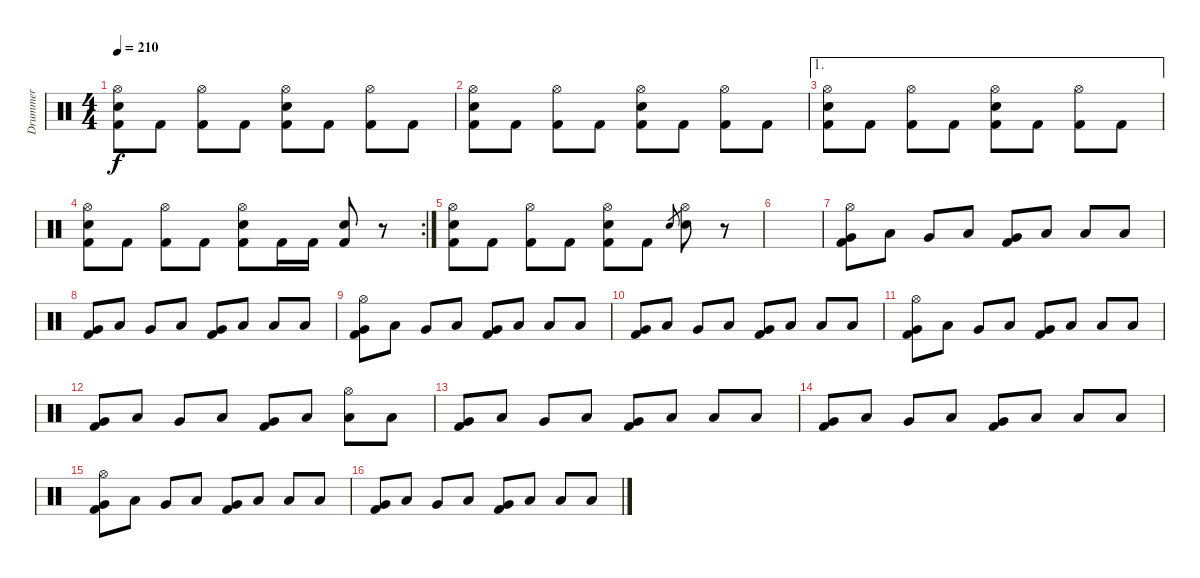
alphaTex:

\track ("Drummer" "Drummer") {instrument percussion}
\staff {score}
\articulation defaults
\ts (4 4)
\tempo 210
\clef neutral
\ks c
("Hi-Hat (open)" "Electric Snare (hit)" "Kick (hit) 2").8{dy f} "Kick (hit) 2".8 ("Hi-Hat (open)" "Kick (hit) 2").8 "Kick (hit) 2".8 ("Hi-Hat (open)" "Electric Snare (hit)" "Kick (hit) 2").8 "Kick (hit) 2".8 ("Hi-Hat (open)" "Kick (hit) 2").8 "Kick (hit) 2".8 |
("Hi-Hat (open)" "Electric Snare (hit)" "Kick (hit) 2").8 "Kick (hit) 2".8 ("Hi-Hat (open)" "Kick (hit) 2").8 "Kick (hit) 2".8 ("Hi-Hat (open)" "Electric Snare (hit)" "Kick (hit) 2").8 "Kick (hit) 2".8 ("Hi-Hat (open)" "Kick (hit) 2").8 "Kick (hit) 2".8 |
\ae 1
("Hi-Hat (open)" "Electric Snare (hit)" "Kick (hit) 2").8 "Kick (hit) 2".8 ("Hi-Hat (open)" "Kick (hit) 2").8 "Kick (hit) 2".8 ("Hi-Hat (open)" "Electric Snare (hit)" "Kick (hit) 2").8 "Kick (hit) 2".8 ("Hi-Hat (open)" "Kick (hit) 2").8 "Kick (hit) 2".8 |
\rc 2
("Hi-Hat (open)" "Electric Snare (hit)" "Kick (hit) 2").8 "Kick (hit) 2".8 ("Hi-Hat (open)" "Kick (hit) 2").8 "Kick (hit) 2".8 ("Hi-Hat (open)" "Electric Snare (hit)" "Kick (hit) 2").8 "Kick (hit) 2".16 "Kick (hit) 2".16 ("Electric Snare (hit)" "Kick (hit) 2").8 r.8 |
("Hi-Hat (open)" "Electric Snare (hit)" "Kick (hit) 2").8 "Kick (hit) 2".8 ("Hi-Hat (open)" "Kick (hit) 2").8 "Kick (hit) 2".8 ("Hi-Hat (open)" "Electric Snare (hit)" "Kick (hit) 2").8 "Kick (hit) 2".8 "Electric Snare (hit)".8{gr} ("Hi-Hat (open)" "Electric Snare (hit)").8 r.8 |
|
("Hi-Hat (open)" "Very Low Tom (hit)" "Kick (hit) 2").8 "Low Tom (hit)".8 "Very Low Tom (hit)".8 "Low Floor Tom (hit)".8 ("Very Low Tom (hit)" "Kick (hit) 2").8 "Low Floor Tom (hit)".8 "Low Tom (hit)".8 "Low Floor Tom (hit)".8 |
("Very Low Tom (hit)" "Kick (hit) 2").8 "Low Tom (hit)".8 "Very Low Tom (hit)".8 "Low Floor Tom (hit)".8 ("Very Low Tom (hit)" "Kick (hit) 2").8 "Low Floor Tom (hit)".8 "Low Tom (hit)".8 "Low Floor Tom (hit)".8 |
("Hi-Hat (open)" "Very Low Tom (hit)" "Kick (hit) 2").8 "Low Tom (hit)".8 "Very Low Tom (hit)".8 "Low Floor Tom (hit)".8 ("Very Low Tom (hit)" "Kick (hit) 2").8 "Low Floor Tom (hit)".8 "Low Tom (hit)".8 "Low Floor Tom (hit)".8 |
("Very Low Tom (hit)" "Kick (hit) 2").8 "Low Tom (hit)".8 "Very Low Tom (hit)".8 "Low Floor Tom (hit)".8 ("Very Low Tom (hit)" "Kick (hit) 2").8 "Low Floor Tom (hit)".8 "Low Tom (hit)".8 "Low Floor Tom (hit)".8 |
("Hi-Hat (open)" "Very Low Tom (hit)" "Kick (hit) 2").8 "Low Tom (hit)".8 "Very Low Tom (hit)".8 "Low Floor Tom (hit)".8 ("Very Low Tom (hit)" "Kick (hit) 2").8 "Low Floor Tom (hit)".8 "Low Tom (hit)".8 "Low Floor Tom (hit)".8 |
("Very Low Tom (hit)" "Kick (hit) 2").8 "Low Tom (hit)".8 "Very Low Tom (hit)".8 "Low Floor Tom (hit)".8 ("Very Low Tom (hit)" "Kick (hit) 2").8 "Low Floor Tom (hit)".8 ("Hi-Hat (open)" "Low Tom (hit)").8 "Low Floor Tom (hit)".8 |
("Very Low Tom (hit)" "Kick (hit) 2").8 "Low Tom (hit)".8 "Very Low Tom (hit)".8 "Low Floor Tom (hit)".8 ("Very Low Tom (hit)" "Kick (hit) 2").8 "Low Floor Tom (hit)".8 "Low Tom (hit)".8 "Low Floor Tom (hit)".8 |
("Very Low Tom (hit)" "Kick (hit) 2").8 "Low Tom (hit)".8 "Very Low Tom (hit)".8 "Low Floor Tom (hit)".8 ("Very Low Tom (hit)" "Kick (hit) 2").8 "Low Floor Tom (hit)".8 "Low Tom (hit)".8 "Low Floor Tom (hit)".8 |
("Hi-Hat (open)" "Very Low Tom (hit)" "Kick (hit) 2").8 "Low Tom (hit)".8 "Very Low Tom (hit)".8 "Low Floor Tom (hit)".8 ("Very Low Tom (hit)" "Kick (hit) 2").8 "Low Floor Tom (hit)".8 "Low Tom (hit)".8 "Low Floor Tom (hit)".8 |
("Very Low Tom (hit)" "Kick (hit) 2").8 "Low Tom (hit)".8 "Very Low Tom (hit)".8 "Low Floor Tom (hit)".8 ("Very Low Tom (hit)" "Kick (hit) 2").8 "Low Floor Tom (hit)".8 "Low Tom (hit)".8 "Low Floor Tom (hit)".8
